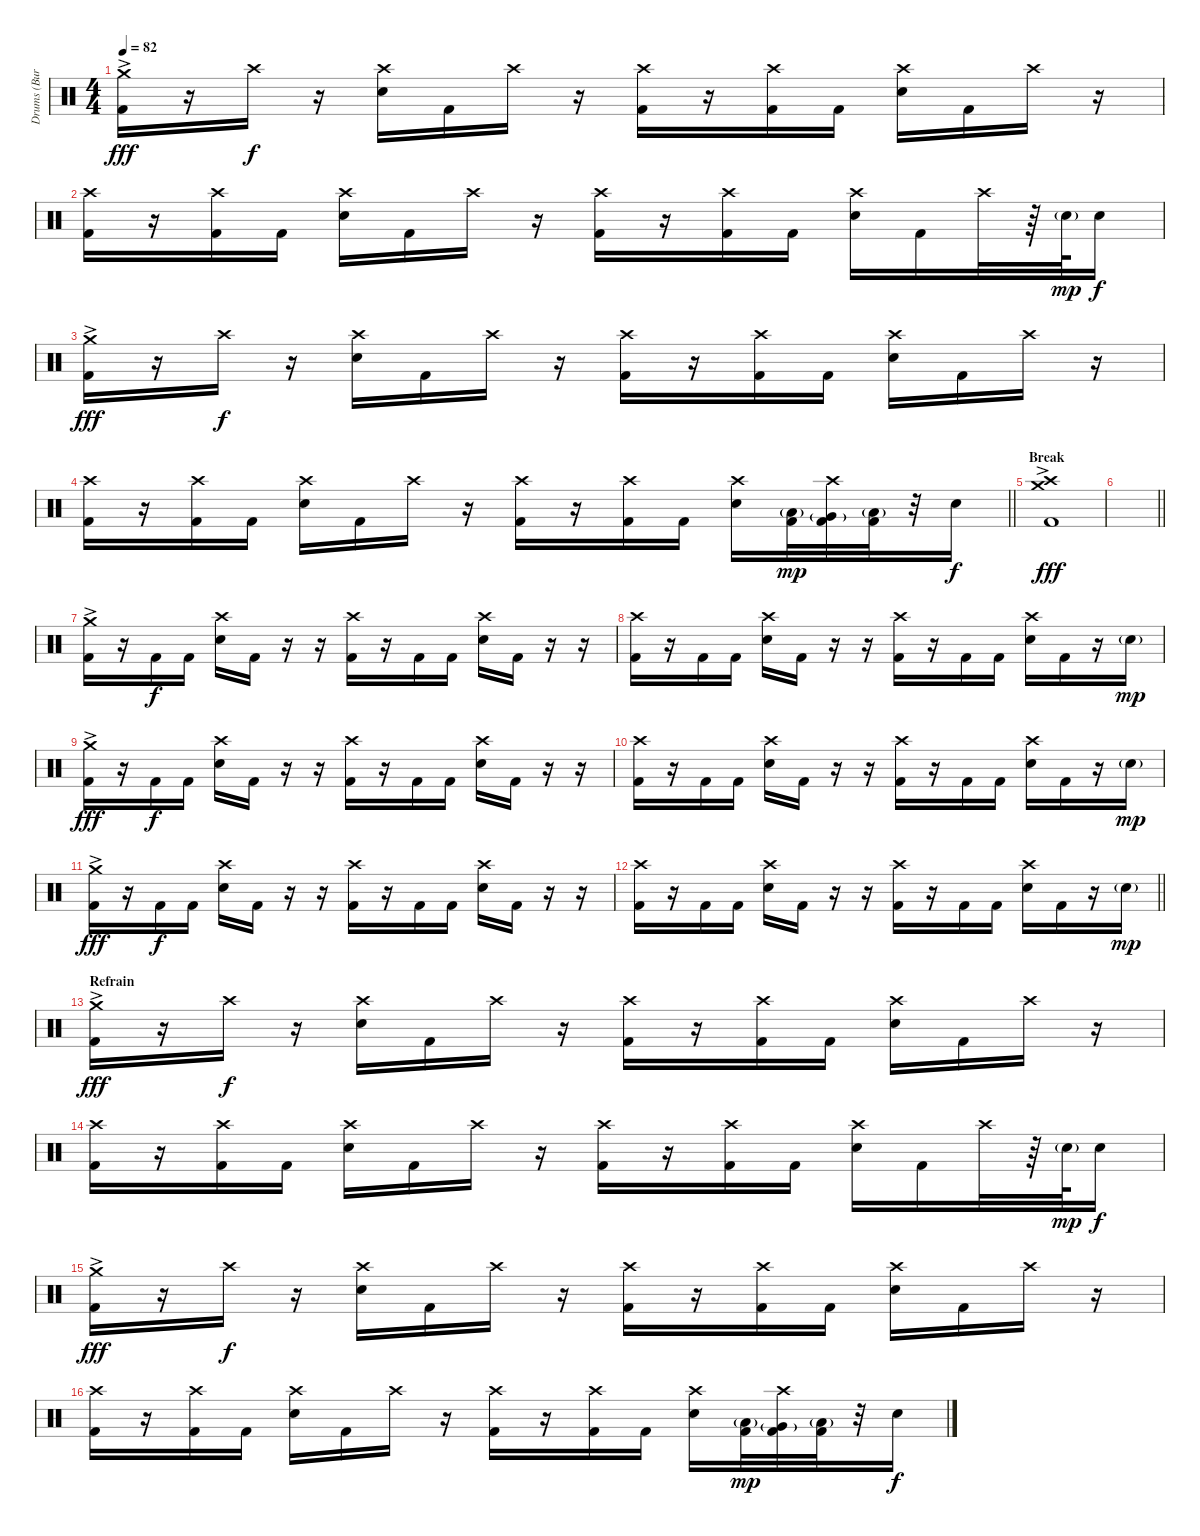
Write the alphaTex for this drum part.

\track ("Drums (Burns)" "Drums (Bur") {instrument percussion}
\staff {score}
\articulation defaults
\ts (4 4)
\tempo 82
\clef neutral
\ks c
("Crash medium (hit)"{ac} "Kick (hit) 2").16{dy fff} r.16 "Crash high (hit)".16{dy f} r.16 ("Crash high (hit)" "Electric Snare (hit)").16 "Kick (hit) 2".16 "Crash high (hit)".16 r.16 ("Crash high (hit)" "Kick (hit) 2").16 r.16 ("Crash high (hit)" "Kick (hit) 2").16 "Kick (hit) 2".16 ("Crash high (hit)" "Electric Snare (hit)").16 "Kick (hit) 2".16 "Crash high (hit)".16 r.16 |
("Crash high (hit)" "Kick (hit) 2").16 r.16 ("Crash high (hit)" "Kick (hit) 2").16 "Kick (hit) 2".16 ("Crash high (hit)" "Electric Snare (hit)").16 "Kick (hit) 2".16 "Crash high (hit)".16 r.16 ("Crash high (hit)" "Kick (hit) 2").16 r.16 ("Crash high (hit)" "Kick (hit) 2").16 "Kick (hit) 2".16 ("Crash high (hit)" "Electric Snare (hit)").16 "Kick (hit) 2".16 "Crash high (hit)".32 r.64 "Electric Snare (hit)"{g}.64{dy mp} "Electric Snare (hit)".16{dy f} |
("Crash medium (hit)"{ac} "Kick (hit) 2").16{dy fff} r.16 "Crash high (hit)".16{dy f} r.16 ("Crash high (hit)" "Electric Snare (hit)").16 "Kick (hit) 2".16 "Crash high (hit)".16 r.16 ("Crash high (hit)" "Kick (hit) 2").16 r.16 ("Crash high (hit)" "Kick (hit) 2").16 "Kick (hit) 2".16 ("Crash high (hit)" "Electric Snare (hit)").16 "Kick (hit) 2".16 "Crash high (hit)".16 r.16 |
\barLineRight lightlight
("Crash high (hit)" "Kick (hit) 2").16 r.16 ("Crash high (hit)" "Kick (hit) 2").16 "Kick (hit) 2".16 ("Crash high (hit)" "Electric Snare (hit)").16 "Kick (hit) 2".16 "Crash high (hit)".16 r.16 ("Crash high (hit)" "Kick (hit) 2").16 r.16 ("Crash high (hit)" "Kick (hit) 2").16 "Kick (hit) 2".16 ("Crash high (hit)" "Electric Snare (hit)").16 ("Low Tom (hit)"{g} "Kick (hit) 2").32{dy mp} ("Crash high (hit)" "Very Low Tom (hit)"{g} "Kick (hit) 2").32 ("Low Floor Tom (hit)"{g} "Kick (hit) 2").32 r.32 "Electric Snare (hit)".16{dy f} |
\section ("" "Break")
("Crash medium (hit)" "Crash high (hit)"{ac} "Kick (hit) 2").1{dy fff} |
\barLineRight lightlight
|
("Crash medium (hit)"{ac} "Kick (hit) 2").16 r.16 "Kick (hit) 2".16{dy f} "Kick (hit) 2".16 ("Crash high (hit)" "Electric Snare (hit)").16 "Kick (hit) 2".16 r.16 r.16 ("Crash high (hit)" "Kick (hit) 2").16 r.16 "Kick (hit) 2".16 "Kick (hit) 2".16 ("Crash high (hit)" "Electric Snare (hit)").16 "Kick (hit) 2".16 r.16 r.16 |
("Crash high (hit)" "Kick (hit) 2").16 r.16 "Kick (hit) 2".16 "Kick (hit) 2".16 ("Crash high (hit)" "Electric Snare (hit)").16 "Kick (hit) 2".16 r.16 r.16 ("Crash high (hit)" "Kick (hit) 2").16 r.16 "Kick (hit) 2".16 "Kick (hit) 2".16 ("Crash high (hit)" "Electric Snare (hit)").16 "Kick (hit) 2".16 r.16 "Electric Snare (hit)"{g}.16{dy mp} |
("Crash medium (hit)"{ac} "Kick (hit) 2").16{dy fff} r.16 "Kick (hit) 2".16{dy f} "Kick (hit) 2".16 ("Crash high (hit)" "Electric Snare (hit)").16 "Kick (hit) 2".16 r.16 r.16 ("Crash high (hit)" "Kick (hit) 2").16 r.16 "Kick (hit) 2".16 "Kick (hit) 2".16 ("Crash high (hit)" "Electric Snare (hit)").16 "Kick (hit) 2".16 r.16 r.16 |
("Crash high (hit)" "Kick (hit) 2").16 r.16 "Kick (hit) 2".16 "Kick (hit) 2".16 ("Crash high (hit)" "Electric Snare (hit)").16 "Kick (hit) 2".16 r.16 r.16 ("Crash high (hit)" "Kick (hit) 2").16 r.16 "Kick (hit) 2".16 "Kick (hit) 2".16 ("Crash high (hit)" "Electric Snare (hit)").16 "Kick (hit) 2".16 r.16 "Electric Snare (hit)"{g}.16{dy mp} |
("Crash medium (hit)"{ac} "Kick (hit) 2").16{dy fff} r.16 "Kick (hit) 2".16{dy f} "Kick (hit) 2".16 ("Crash high (hit)" "Electric Snare (hit)").16 "Kick (hit) 2".16 r.16 r.16 ("Crash high (hit)" "Kick (hit) 2").16 r.16 "Kick (hit) 2".16 "Kick (hit) 2".16 ("Crash high (hit)" "Electric Snare (hit)").16 "Kick (hit) 2".16 r.16 r.16 |
\barLineRight lightlight
("Crash high (hit)" "Kick (hit) 2").16 r.16 "Kick (hit) 2".16 "Kick (hit) 2".16 ("Crash high (hit)" "Electric Snare (hit)").16 "Kick (hit) 2".16 r.16 r.16 ("Crash high (hit)" "Kick (hit) 2").16 r.16 "Kick (hit) 2".16 "Kick (hit) 2".16 ("Crash high (hit)" "Electric Snare (hit)").16 "Kick (hit) 2".16 r.16 "Electric Snare (hit)"{g}.16{dy mp} |
\section ("" "Refrain")
("Crash medium (hit)"{ac} "Kick (hit) 2").16{dy fff} r.16 "Crash high (hit)".16{dy f} r.16 ("Crash high (hit)" "Electric Snare (hit)").16 "Kick (hit) 2".16 "Crash high (hit)".16 r.16 ("Crash high (hit)" "Kick (hit) 2").16 r.16 ("Crash high (hit)" "Kick (hit) 2").16 "Kick (hit) 2".16 ("Crash high (hit)" "Electric Snare (hit)").16 "Kick (hit) 2".16 "Crash high (hit)".16 r.16 |
("Crash high (hit)" "Kick (hit) 2").16 r.16 ("Crash high (hit)" "Kick (hit) 2").16 "Kick (hit) 2".16 ("Crash high (hit)" "Electric Snare (hit)").16 "Kick (hit) 2".16 "Crash high (hit)".16 r.16 ("Crash high (hit)" "Kick (hit) 2").16 r.16 ("Crash high (hit)" "Kick (hit) 2").16 "Kick (hit) 2".16 ("Crash high (hit)" "Electric Snare (hit)").16 "Kick (hit) 2".16 "Crash high (hit)".32 r.64 "Electric Snare (hit)"{g}.64{dy mp} "Electric Snare (hit)".16{dy f} |
("Crash medium (hit)"{ac} "Kick (hit) 2").16{dy fff} r.16 "Crash high (hit)".16{dy f} r.16 ("Crash high (hit)" "Electric Snare (hit)").16 "Kick (hit) 2".16 "Crash high (hit)".16 r.16 ("Crash high (hit)" "Kick (hit) 2").16 r.16 ("Crash high (hit)" "Kick (hit) 2").16 "Kick (hit) 2".16 ("Crash high (hit)" "Electric Snare (hit)").16 "Kick (hit) 2".16 "Crash high (hit)".16 r.16 |
("Crash high (hit)" "Kick (hit) 2").16 r.16 ("Crash high (hit)" "Kick (hit) 2").16 "Kick (hit) 2".16 ("Crash high (hit)" "Electric Snare (hit)").16 "Kick (hit) 2".16 "Crash high (hit)".16 r.16 ("Crash high (hit)" "Kick (hit) 2").16 r.16 ("Crash high (hit)" "Kick (hit) 2").16 "Kick (hit) 2".16 ("Crash high (hit)" "Electric Snare (hit)").16 ("Low Tom (hit)"{g} "Kick (hit) 2").32{dy mp} ("Crash high (hit)" "Very Low Tom (hit)"{g} "Kick (hit) 2").32 ("Low Floor Tom (hit)"{g} "Kick (hit) 2").32 r.32 "Electric Snare (hit)".16{dy f}
